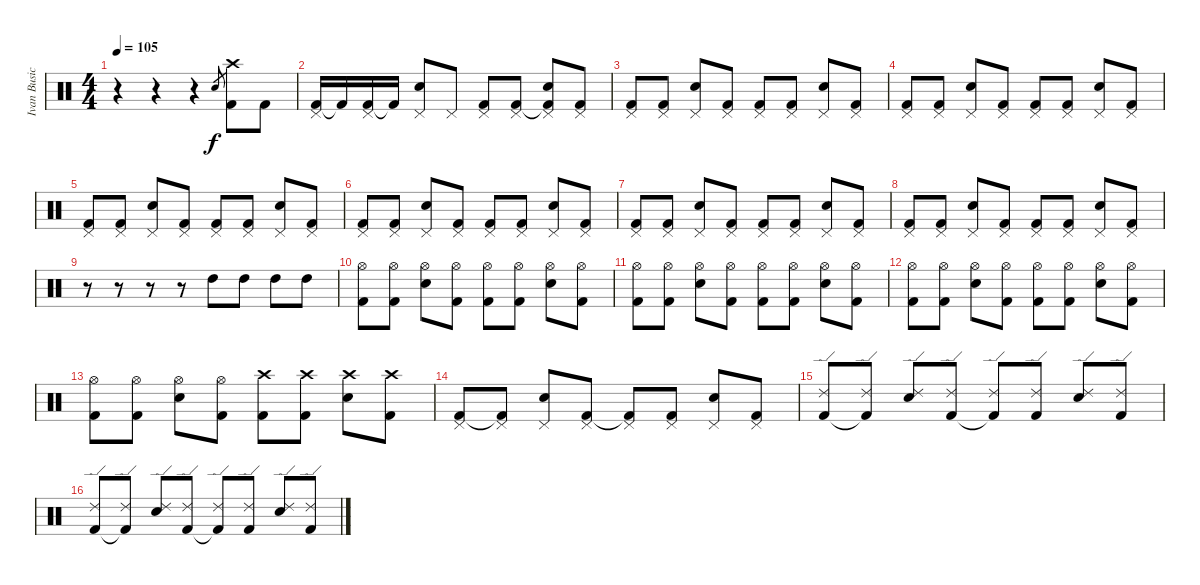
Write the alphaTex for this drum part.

\track ("Ivan Busic" "Ivan Busic") {instrument percussion}
\staff {score}
\articulation defaults
\ts (4 4)
\tempo 105
\clef neutral
\ks c
r.4{dy f} r.4 r.4 "Electric Snare (hit)".8{gr} ("Crash high (hit)" "Kick (hit) 2").8 "Kick (hit) 2".8 |
("Kick (hit) 2" "Pedal Hi-Hat (hit)").16 "Kick (hit) 2"{t}.16 ("Kick (hit) 2" "Pedal Hi-Hat (hit)").16 "Kick (hit) 2"{t}.16 ("Electric Snare (hit)" "Pedal Hi-Hat (hit)").8 "Pedal Hi-Hat (hit)".8 ("Kick (hit) 2" "Pedal Hi-Hat (hit)").8 ("Kick (hit) 2" "Pedal Hi-Hat (hit)").8 ("Kick (hit) 2"{t} "Electric Snare (hit)" "Pedal Hi-Hat (hit)").8 ("Kick (hit) 2" "Pedal Hi-Hat (hit)").8 |
("Kick (hit) 2" "Pedal Hi-Hat (hit)").8 ("Kick (hit) 2" "Pedal Hi-Hat (hit)").8 ("Electric Snare (hit)" "Pedal Hi-Hat (hit)").8 ("Kick (hit) 2" "Pedal Hi-Hat (hit)").8 ("Kick (hit) 2" "Pedal Hi-Hat (hit)").8 ("Kick (hit) 2" "Pedal Hi-Hat (hit)").8 ("Electric Snare (hit)" "Pedal Hi-Hat (hit)").8 ("Kick (hit) 2" "Pedal Hi-Hat (hit)").8 |
("Kick (hit) 2" "Pedal Hi-Hat (hit)").8 ("Kick (hit) 2" "Pedal Hi-Hat (hit)").8 ("Electric Snare (hit)" "Pedal Hi-Hat (hit)").8 ("Kick (hit) 2" "Pedal Hi-Hat (hit)").8 ("Kick (hit) 2" "Pedal Hi-Hat (hit)").8 ("Kick (hit) 2" "Pedal Hi-Hat (hit)").8 ("Electric Snare (hit)" "Pedal Hi-Hat (hit)").8 ("Kick (hit) 2" "Pedal Hi-Hat (hit)").8 |
("Kick (hit) 2" "Pedal Hi-Hat (hit)").8 ("Kick (hit) 2" "Pedal Hi-Hat (hit)").8 ("Electric Snare (hit)" "Pedal Hi-Hat (hit)").8 ("Kick (hit) 2" "Pedal Hi-Hat (hit)").8 ("Kick (hit) 2" "Pedal Hi-Hat (hit)").8 ("Kick (hit) 2" "Pedal Hi-Hat (hit)").8 ("Electric Snare (hit)" "Pedal Hi-Hat (hit)").8 ("Kick (hit) 2" "Pedal Hi-Hat (hit)").8 |
("Kick (hit) 2" "Pedal Hi-Hat (hit)").8 ("Kick (hit) 2" "Pedal Hi-Hat (hit)").8 ("Electric Snare (hit)" "Pedal Hi-Hat (hit)").8 ("Kick (hit) 2" "Pedal Hi-Hat (hit)").8 ("Kick (hit) 2" "Pedal Hi-Hat (hit)").8 ("Kick (hit) 2" "Pedal Hi-Hat (hit)").8 ("Electric Snare (hit)" "Pedal Hi-Hat (hit)").8 ("Kick (hit) 2" "Pedal Hi-Hat (hit)").8 |
("Kick (hit) 2" "Pedal Hi-Hat (hit)").8 ("Kick (hit) 2" "Pedal Hi-Hat (hit)").8 ("Electric Snare (hit)" "Pedal Hi-Hat (hit)").8 ("Kick (hit) 2" "Pedal Hi-Hat (hit)").8 ("Kick (hit) 2" "Pedal Hi-Hat (hit)").8 ("Kick (hit) 2" "Pedal Hi-Hat (hit)").8 ("Electric Snare (hit)" "Pedal Hi-Hat (hit)").8 ("Kick (hit) 2" "Pedal Hi-Hat (hit)").8 |
("Kick (hit) 2" "Pedal Hi-Hat (hit)").8 ("Kick (hit) 2" "Pedal Hi-Hat (hit)").8 ("Electric Snare (hit)" "Pedal Hi-Hat (hit)").8 ("Kick (hit) 2" "Pedal Hi-Hat (hit)").8 ("Kick (hit) 2" "Pedal Hi-Hat (hit)").8 ("Kick (hit) 2" "Pedal Hi-Hat (hit)").8 ("Electric Snare (hit)" "Pedal Hi-Hat (hit)").8 ("Kick (hit) 2" "Pedal Hi-Hat (hit)").8 |
r.8 r.8 r.8 r.8 "High Tom (hit)".8 "High Tom (hit)".8 "High Tom (hit)".8 "High Tom (hit)".8 |
("Kick (hit) 2" "Hi-Hat (open)").8 ("Kick (hit) 2" "Hi-Hat (open)").8 ("Electric Snare (hit)" "Hi-Hat (open)").8 ("Kick (hit) 2" "Hi-Hat (open)").8 ("Kick (hit) 2" "Hi-Hat (open)").8 ("Kick (hit) 2" "Hi-Hat (open)").8 ("Electric Snare (hit)" "Hi-Hat (open)").8 ("Kick (hit) 2" "Hi-Hat (open)").8 |
("Kick (hit) 2" "Hi-Hat (open)").8 ("Kick (hit) 2" "Hi-Hat (open)").8 ("Electric Snare (hit)" "Hi-Hat (open)").8 ("Kick (hit) 2" "Hi-Hat (open)").8 ("Kick (hit) 2" "Hi-Hat (open)").8 ("Kick (hit) 2" "Hi-Hat (open)").8 ("Electric Snare (hit)" "Hi-Hat (open)").8 ("Kick (hit) 2" "Hi-Hat (open)").8 |
("Kick (hit) 2" "Hi-Hat (open)").8 ("Kick (hit) 2" "Hi-Hat (open)").8 ("Electric Snare (hit)" "Hi-Hat (open)").8 ("Kick (hit) 2" "Hi-Hat (open)").8 ("Kick (hit) 2" "Hi-Hat (open)").8 ("Kick (hit) 2" "Hi-Hat (open)").8 ("Electric Snare (hit)" "Hi-Hat (open)").8 ("Kick (hit) 2" "Hi-Hat (open)").8 |
("Kick (hit) 2" "Hi-Hat (open)").8 ("Kick (hit) 2" "Hi-Hat (open)").8 ("Electric Snare (hit)" "Hi-Hat (open)").8 ("Kick (hit) 2" "Hi-Hat (open)").8 ("Kick (hit) 2" "Crash high (hit)").8 ("Kick (hit) 2" "Crash high (hit)").8 ("Electric Snare (hit)" "Crash high (hit)").8 ("Kick (hit) 2" "Crash high (hit)").8 |
("Kick (hit) 2" "Pedal Hi-Hat (hit)").8 ("Kick (hit) 2"{t} "Pedal Hi-Hat (hit)").8 ("Electric Snare (hit)" "Pedal Hi-Hat (hit)").8 ("Kick (hit) 2" "Pedal Hi-Hat (hit)").8 ("Kick (hit) 2"{t} "Pedal Hi-Hat (hit)").8 ("Kick (hit) 2" "Pedal Hi-Hat (hit)").8 ("Electric Snare (hit)" "Pedal Hi-Hat (hit)").8 ("Kick (hit) 2" "Pedal Hi-Hat (hit)").8 |
("Kick (hit) 2" "Ride (edge) 2").8 ("Kick (hit) 2"{t} "Ride (edge) 2").8 ("Electric Snare (hit)" "Ride (edge) 2").8 ("Kick (hit) 2" "Ride (edge) 2").8 ("Kick (hit) 2"{t} "Ride (edge) 2").8 ("Kick (hit) 2" "Ride (edge) 2").8 ("Electric Snare (hit)" "Ride (edge) 2").8 ("Kick (hit) 2" "Ride (edge) 2").8 |
("Kick (hit) 2" "Ride (edge) 2").8 ("Kick (hit) 2"{t} "Ride (edge) 2").8 ("Electric Snare (hit)" "Ride (edge) 2").8 ("Kick (hit) 2" "Ride (edge) 2").8 ("Kick (hit) 2"{t} "Ride (edge) 2").8 ("Kick (hit) 2" "Ride (edge) 2").8 ("Electric Snare (hit)" "Ride (edge) 2").8 ("Kick (hit) 2" "Ride (edge) 2").8
